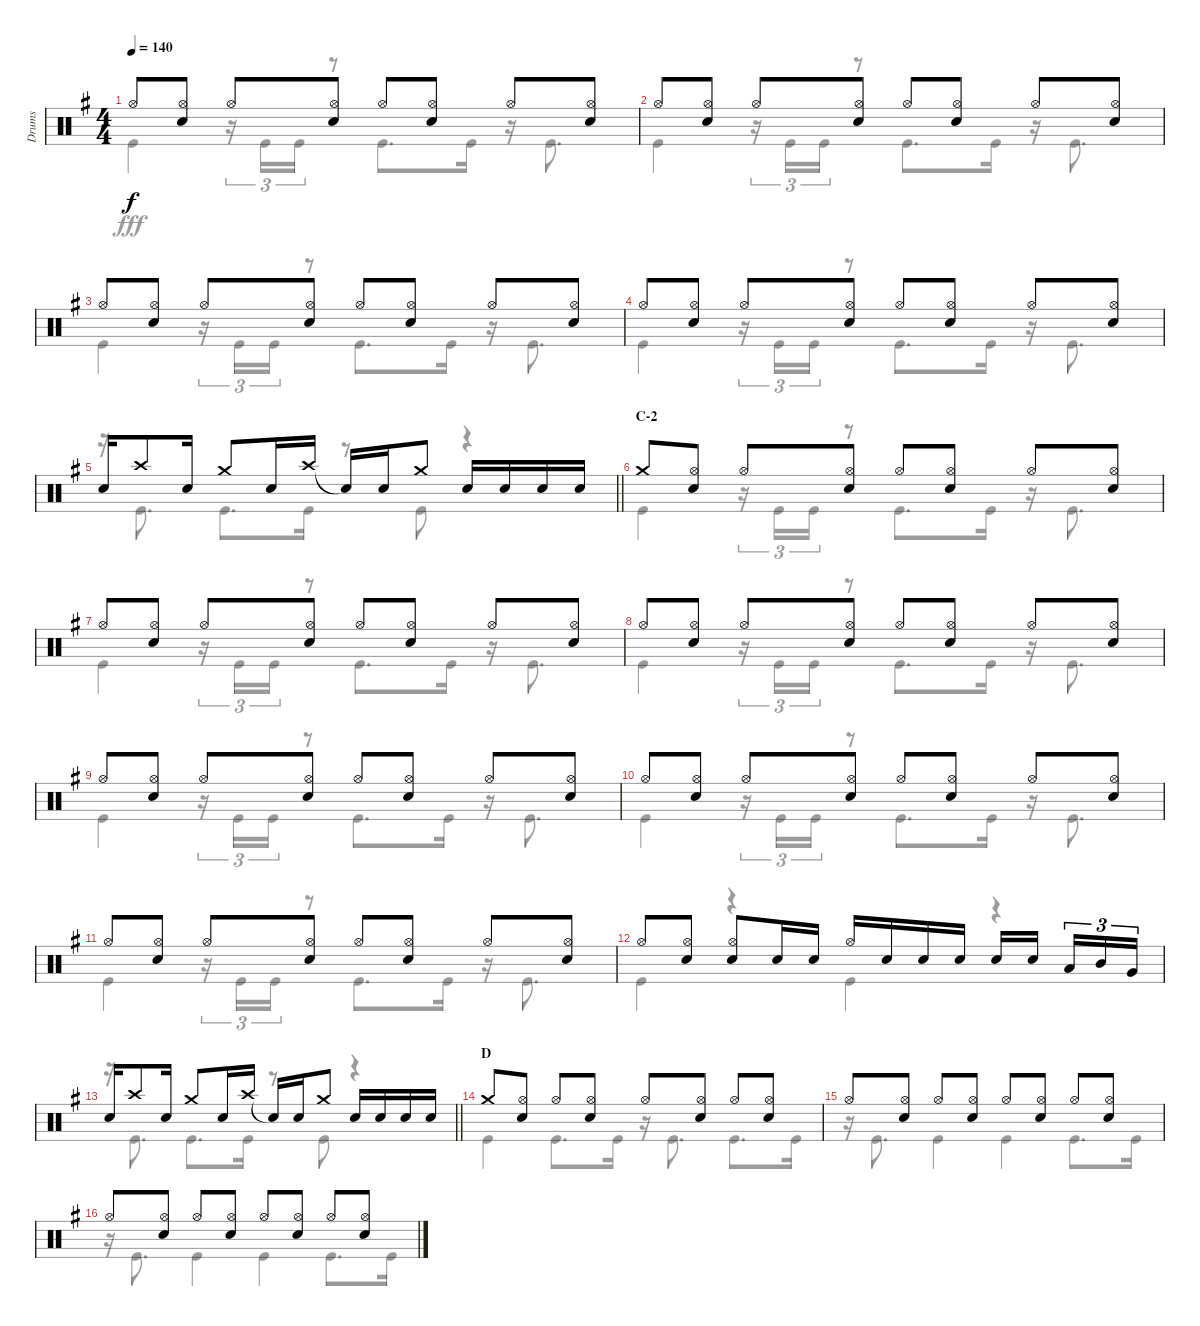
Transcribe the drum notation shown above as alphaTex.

\track ("Drums" "Drums") {instrument percussion}
\staff {score}
\articulation defaults
\voice
\ts (4 4)
\tempo 140
\clef neutral
\ks g "Hi-Hat (open)".8{dy f}
("Hi-Hat (open)" "Snare (hit) 2").8 "Hi-Hat (open)".8 ("Hi-Hat (open)" "Snare (hit) 2").8 "Hi-Hat (open)".8 ("Hi-Hat (open)" "Snare (hit) 2").8 "Hi-Hat (open)".8 ("Hi-Hat (open)" "Snare (hit) 2").8 |
"Hi-Hat (open)".8 ("Hi-Hat (open)" "Snare (hit) 2").8 "Hi-Hat (open)".8 ("Hi-Hat (open)" "Snare (hit) 2").8 "Hi-Hat (open)".8 ("Hi-Hat (open)" "Snare (hit) 2").8 "Hi-Hat (open)".8 ("Hi-Hat (open)" "Snare (hit) 2").8 |
"Hi-Hat (open)".8 ("Hi-Hat (open)" "Snare (hit) 2").8 "Hi-Hat (open)".8 ("Hi-Hat (open)" "Snare (hit) 2").8 "Hi-Hat (open)".8 ("Hi-Hat (open)" "Snare (hit) 2").8 "Hi-Hat (open)".8 ("Hi-Hat (open)" "Snare (hit) 2").8 |
"Hi-Hat (open)".8 ("Hi-Hat (open)" "Snare (hit) 2").8 "Hi-Hat (open)".8 ("Hi-Hat (open)" "Snare (hit) 2").8 "Hi-Hat (open)".8 ("Hi-Hat (open)" "Snare (hit) 2").8 "Hi-Hat (open)".8 ("Hi-Hat (open)" "Snare (hit) 2").8 |
\barLineRight lightlight "Snare (hit) 2".16 "Crash high (hit)".8 "Snare (hit) 2".16 "Crash medium (hit)".8 "Snare (hit) 2".16 "Crash high (hit)".16 "Snare (hit)"{t}.16 "Snare (hit) 2".16 "Crash medium (hit)".8 "Snare (hit) 2".16 "Snare (hit) 2".16 "Snare (hit) 2".16 "Snare (hit) 2".16
|
\section ("" "C-2")
"Crash medium (hit)".8 ("Hi-Hat (open)" "Snare (hit) 2").8 "Hi-Hat (open)".8 ("Hi-Hat (open)" "Snare (hit) 2").8 "Hi-Hat (open)".8 ("Hi-Hat (open)" "Snare (hit) 2").8 "Hi-Hat (open)".8 ("Hi-Hat (open)" "Snare (hit) 2").8 |
"Hi-Hat (open)".8 ("Hi-Hat (open)" "Snare (hit) 2").8 "Hi-Hat (open)".8 ("Hi-Hat (open)" "Snare (hit) 2").8 "Hi-Hat (open)".8 ("Hi-Hat (open)" "Snare (hit) 2").8 "Hi-Hat (open)".8 ("Hi-Hat (open)" "Snare (hit) 2").8 |
"Hi-Hat (open)".8 ("Hi-Hat (open)" "Snare (hit) 2").8 "Hi-Hat (open)".8 ("Hi-Hat (open)" "Snare (hit) 2").8 "Hi-Hat (open)".8 ("Hi-Hat (open)" "Snare (hit) 2").8 "Hi-Hat (open)".8 ("Hi-Hat (open)" "Snare (hit) 2").8 |
"Hi-Hat (open)".8 ("Hi-Hat (open)" "Snare (hit) 2").8 "Hi-Hat (open)".8 ("Hi-Hat (open)" "Snare (hit) 2").8 "Hi-Hat (open)".8 ("Hi-Hat (open)" "Snare (hit) 2").8 "Hi-Hat (open)".8 ("Hi-Hat (open)" "Snare (hit) 2").8 |
"Hi-Hat (open)".8 ("Hi-Hat (open)" "Snare (hit) 2").8 "Hi-Hat (open)".8 ("Hi-Hat (open)" "Snare (hit) 2").8 "Hi-Hat (open)".8 ("Hi-Hat (open)" "Snare (hit) 2").8 "Hi-Hat (open)".8 ("Hi-Hat (open)" "Snare (hit) 2").8 |
"Hi-Hat (open)".8 ("Hi-Hat (open)" "Snare (hit) 2").8 "Hi-Hat (open)".8 ("Hi-Hat (open)" "Snare (hit) 2").8 "Hi-Hat (open)".8 ("Hi-Hat (open)" "Snare (hit) 2").8 "Hi-Hat (open)".8 ("Hi-Hat (open)" "Snare (hit) 2").8 |
"Hi-Hat (open)".8 ("Hi-Hat (open)" "Snare (hit) 2").8 ("Hi-Hat (open)" "Snare (hit) 2").8 "Snare (hit) 2".16 "Snare (hit) 2".16 "Hi-Hat (open)".16 "Snare (hit) 2".16 "Snare (hit) 2".16 "Snare (hit) 2".16 "Snare (hit) 2".16 "Snare (hit) 2".16{beam splitsecondary} "Low Tom (hit)".16{tu (3 2)} "Mid Tom (hit)".16{tu (3 2)} "Very Low Tom (hit)".16{tu (3 2)} |
\barLineRight lightlight "Snare (hit) 2".16 "Crash high (hit)".8 "Snare (hit) 2".16 "Crash medium (hit)".8 "Snare (hit) 2".16 "Crash high (hit)".16 "Snare (hit)"{t}.16 "Snare (hit) 2".16 "Crash medium (hit)".8 "Snare (hit) 2".16 "Snare (hit) 2".16 "Snare (hit) 2".16 "Snare (hit) 2".16
|
\section ("" "D")
"Crash medium (hit)".8 ("Hi-Hat (open)" "Snare (hit) 2").8 "Hi-Hat (open)".8 ("Hi-Hat (open)" "Snare (hit) 2").8 "Hi-Hat (open)".8 ("Hi-Hat (open)" "Snare (hit) 2").8 "Hi-Hat (open)".8 ("Hi-Hat (open)" "Snare (hit) 2").8 |
"Hi-Hat (open)".8 ("Hi-Hat (open)" "Snare (hit) 2").8 "Hi-Hat (open)".8 ("Hi-Hat (open)" "Snare (hit) 2").8 "Hi-Hat (open)".8 ("Hi-Hat (open)" "Snare (hit) 2").8 "Hi-Hat (open)".8 ("Hi-Hat (open)" "Snare (hit) 2").8 |
"Hi-Hat (open)".8 ("Hi-Hat (open)" "Snare (hit) 2").8 "Hi-Hat (open)".8 ("Hi-Hat (open)" "Snare (hit) 2").8 "Hi-Hat (open)".8 ("Hi-Hat (open)" "Snare (hit) 2").8 "Hi-Hat (open)".8 ("Hi-Hat (open)" "Snare (hit) 2").8
\voice
\clef neutral
\ottava regular
\simile none
\ks g "Kick (hit)".4{dy fff}
r.16{tu (3 2)} "Kick (hit)".16{tu (3 2)} "Kick (hit)".16{tu (3 2)} r.8 "Kick (hit)".8{d} "Kick (hit)".16 r.16 "Kick (hit)".8{d} |
"Kick (hit)".4 r.16{tu (3 2)} "Kick (hit)".16{tu (3 2)} "Kick (hit)".16{tu (3 2)} r.8 "Kick (hit)".8{d} "Kick (hit)".16 r.16 "Kick (hit)".8{d} |
"Kick (hit)".4 r.16{tu (3 2)} "Kick (hit)".16{tu (3 2)} "Kick (hit)".16{tu (3 2)} r.8 "Kick (hit)".8{d} "Kick (hit)".16 r.16 "Kick (hit)".8{d} |
"Kick (hit)".4 r.16{tu (3 2)} "Kick (hit)".16{tu (3 2)} "Kick (hit)".16{tu (3 2)} r.8 "Kick (hit)".8{d} "Kick (hit)".16 r.16 "Kick (hit)".8{d} |
\barLineRight lightlight
r.16 "Kick (hit)".8{d} "Kick (hit)".8{d} "Kick (hit)".16 r.8 "Kick (hit)".8 r.4 |
"Kick (hit)".4 r.16{tu (3 2)} "Kick (hit)".16{tu (3 2)} "Kick (hit)".16{tu (3 2)} r.8 "Kick (hit)".8{d} "Kick (hit)".16 r.16 "Kick (hit)".8{d} |
"Kick (hit)".4 r.16{tu (3 2)} "Kick (hit)".16{tu (3 2)} "Kick (hit)".16{tu (3 2)} r.8 "Kick (hit)".8{d} "Kick (hit)".16 r.16 "Kick (hit)".8{d} |
"Kick (hit)".4 r.16{tu (3 2)} "Kick (hit)".16{tu (3 2)} "Kick (hit)".16{tu (3 2)} r.8 "Kick (hit)".8{d} "Kick (hit)".16 r.16 "Kick (hit)".8{d} |
"Kick (hit)".4 r.16{tu (3 2)} "Kick (hit)".16{tu (3 2)} "Kick (hit)".16{tu (3 2)} r.8 "Kick (hit)".8{d} "Kick (hit)".16 r.16 "Kick (hit)".8{d} |
"Kick (hit)".4 r.16{tu (3 2)} "Kick (hit)".16{tu (3 2)} "Kick (hit)".16{tu (3 2)} r.8 "Kick (hit)".8{d} "Kick (hit)".16 r.16 "Kick (hit)".8{d} |
"Kick (hit)".4 r.16{tu (3 2)} "Kick (hit)".16{tu (3 2)} "Kick (hit)".16{tu (3 2)} r.8 "Kick (hit)".8{d} "Kick (hit)".16 r.16 "Kick (hit)".8{d} |
"Kick (hit)".4 r.4 "Kick (hit)".4 r.4 |
\barLineRight lightlight
r.16 "Kick (hit)".8{d} "Kick (hit)".8{d} "Kick (hit)".16 r.8 "Kick (hit)".8 r.4 |
"Kick (hit)".4 "Kick (hit)".8{d} "Kick (hit)".16 r.16 "Kick (hit)".8{d} "Kick (hit)".8{d} "Kick (hit)".16 |
r.16 "Kick (hit)".8{d} "Kick (hit)".4 "Kick (hit)".4 "Kick (hit)".8{d} "Kick (hit)".16 |
r.16 "Kick (hit)".8{d} "Kick (hit)".4 "Kick (hit)".4 "Kick (hit)".8{d} "Kick (hit)".16
